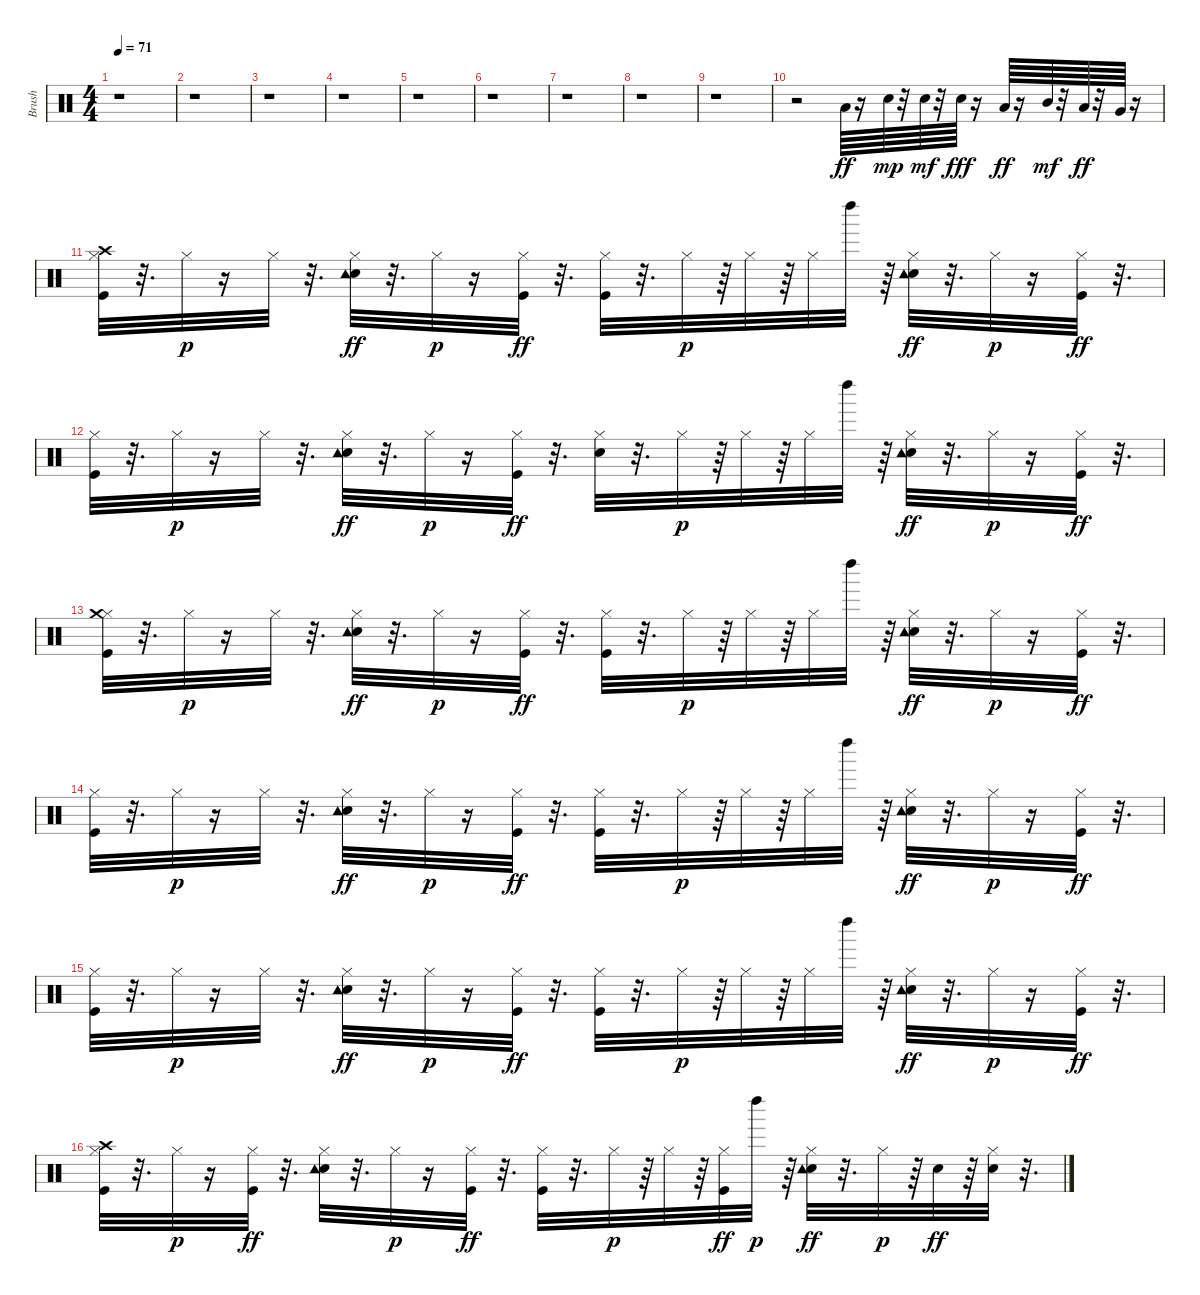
\track ("Brush               " "Brush     ") {instrument percussion}
\staff {score}
\articulation defaults
\ts (4 4)
\tempo 71
\clef neutral
\ks c
r.1{dy ff} |
r.1 |
r.1 |
r.1 |
r.1 |
r.1 |
r.1 |
r.1 |
r.1 |
r.2 "Low Tom (hit)".64 r.16 "Snare (hit) 2".64{dy mp} r.32 "Snare (hit) 2".64{dy mf} r.32 "Snare (hit) 2".64{dy fff} r.16 "Low Tom (hit)".64{dy ff} r.16 "Mid Tom (hit)".64{dy mf} r.32 "Low Tom (hit)".64{dy ff} r.32 "Very Low Tom (hit)".64 r.16 |
("Hi-Hat (closed)" "Kick (hit)" "Crash high (hit)").32 r.32{d} "Hi-Hat (closed)".32{dy p} r.16 "Hi-Hat (closed)".32 r.32{d} ("Hi-Hat (closed)" "Snare (hit) 2" "Tambourine (hit)").32{dy ff} r.32{d} "Hi-Hat (closed)".32{dy p} r.16 ("Hi-Hat (closed)" "Kick (hit)").32{dy ff} r.32{d} ("Hi-Hat (closed)" "Kick (hit)").32 r.32{d} "Hi-Hat (closed)".32{dy p} r.64 "Hi-Hat (closed)".32 r.64 "Hi-Hat (closed)".32 "Left Maraca (hit)".32 r.64 ("Hi-Hat (closed)" "Snare (hit) 2" "Tambourine (hit)").32{dy ff} r.32{d} "Hi-Hat (closed)".32{dy p} r.16 ("Hi-Hat (closed)" "Kick (hit)").32{dy ff} r.32{d} |
("Hi-Hat (closed)" "Kick (hit)").32 r.32{d} "Hi-Hat (closed)".32{dy p} r.16 "Hi-Hat (closed)".32 r.32{d} ("Hi-Hat (closed)" "Snare (hit) 2" "Tambourine (hit)").32{dy ff} r.32{d} "Hi-Hat (closed)".32{dy p} r.16 ("Hi-Hat (closed)" "Kick (hit)").32{dy ff} r.32{d} ("Hi-Hat (closed)" "Snare (hit) 2").32 r.32{d} "Hi-Hat (closed)".32{dy p} r.64 "Hi-Hat (closed)".32 r.64 "Hi-Hat (closed)".32 "Left Maraca (hit)".32 r.64 ("Hi-Hat (closed)" "Snare (hit) 2" "Tambourine (hit)").32{dy ff} r.32{d} "Hi-Hat (closed)".32{dy p} r.16 ("Hi-Hat (closed)" "Kick (hit)").32{dy ff} r.32{d} |
("Hi-Hat (closed)" "Kick (hit)" "Crash medium (hit)").32 r.32{d} "Hi-Hat (closed)".32{dy p} r.16 "Hi-Hat (closed)".32 r.32{d} ("Hi-Hat (closed)" "Snare (hit) 2" "Tambourine (hit)").32{dy ff} r.32{d} "Hi-Hat (closed)".32{dy p} r.16 ("Hi-Hat (closed)" "Kick (hit)").32{dy ff} r.32{d} ("Hi-Hat (closed)" "Kick (hit)").32 r.32{d} "Hi-Hat (closed)".32{dy p} r.64 "Hi-Hat (closed)".32 r.64 "Hi-Hat (closed)".32 "Left Maraca (hit)".32 r.64 ("Hi-Hat (closed)" "Snare (hit) 2" "Tambourine (hit)").32{dy ff} r.32{d} "Hi-Hat (closed)".32{dy p} r.16 ("Hi-Hat (closed)" "Kick (hit)").32{dy ff} r.32{d} |
("Hi-Hat (closed)" "Kick (hit)").32 r.32{d} "Hi-Hat (closed)".32{dy p} r.16 "Hi-Hat (closed)".32 r.32{d} ("Hi-Hat (closed)" "Snare (hit) 2" "Tambourine (hit)").32{dy ff} r.32{d} "Hi-Hat (closed)".32{dy p} r.16 ("Hi-Hat (closed)" "Kick (hit)").32{dy ff} r.32{d} ("Hi-Hat (closed)" "Kick (hit)").32 r.32{d} "Hi-Hat (closed)".32{dy p} r.64 "Hi-Hat (closed)".32 r.64 "Hi-Hat (closed)".32 "Left Maraca (hit)".32 r.64 ("Hi-Hat (closed)" "Snare (hit) 2" "Tambourine (hit)").32{dy ff} r.32{d} "Hi-Hat (closed)".32{dy p} r.16 ("Hi-Hat (closed)" "Kick (hit)").32{dy ff} r.32{d} |
("Hi-Hat (closed)" "Kick (hit)").32 r.32{d} "Hi-Hat (closed)".32{dy p} r.16 "Hi-Hat (closed)".32 r.32{d} ("Hi-Hat (closed)" "Snare (hit) 2" "Tambourine (hit)").32{dy ff} r.32{d} "Hi-Hat (closed)".32{dy p} r.16 ("Hi-Hat (closed)" "Kick (hit)").32{dy ff} r.32{d} ("Hi-Hat (closed)" "Kick (hit)").32 r.32{d} "Hi-Hat (closed)".32{dy p} r.64 "Hi-Hat (closed)".32 r.64 "Hi-Hat (closed)".32 "Left Maraca (hit)".32 r.64 ("Hi-Hat (closed)" "Snare (hit) 2" "Tambourine (hit)").32{dy ff} r.32{d} "Hi-Hat (closed)".32{dy p} r.16 ("Hi-Hat (closed)" "Kick (hit)").32{dy ff} r.32{d} |
("Hi-Hat (closed)" "Kick (hit)" "Crash high (hit)").32 r.32{d} "Hi-Hat (closed)".32{dy p} r.16 ("Hi-Hat (closed)" "Kick (hit)").32{dy ff} r.32{d} ("Hi-Hat (closed)" "Snare (hit) 2" "Tambourine (hit)").32 r.32{d} "Hi-Hat (closed)".32{dy p} r.16 ("Hi-Hat (closed)" "Kick (hit)").32{dy ff} r.32{d} ("Hi-Hat (closed)" "Kick (hit)").32 r.32{d} "Hi-Hat (closed)".32{dy p} r.64 "Hi-Hat (closed)".32 r.64 ("Hi-Hat (closed)" "Kick (hit)").32{dy ff} "Left Maraca (hit)".32{dy p} r.64 ("Hi-Hat (closed)" "Snare (hit) 2" "Tambourine (hit)").32{dy ff} r.32{d} "Hi-Hat (closed)".32{dy p} r.64 "Snare (hit) 2".32{dy ff} r.64 ("Hi-Hat (closed)" "Snare (hit) 2").32 r.32{d}
